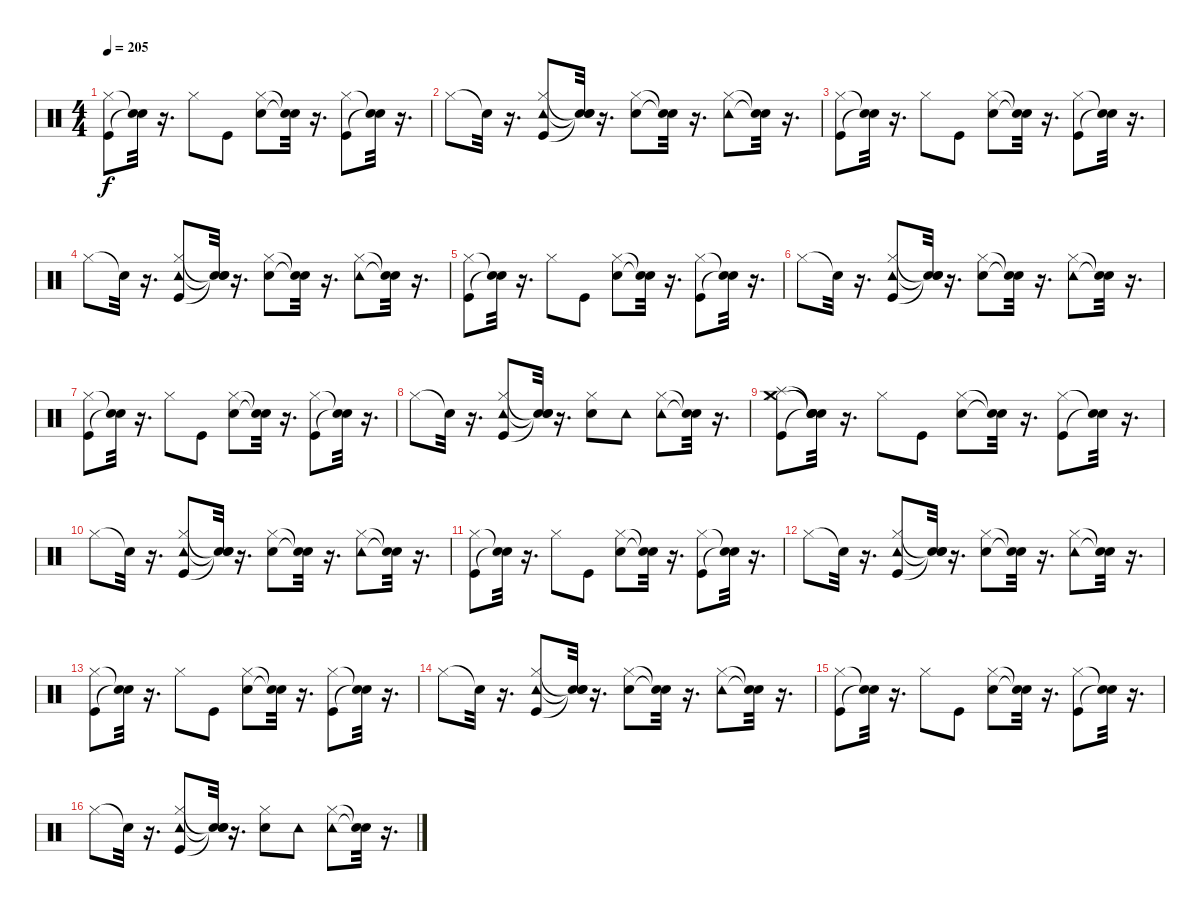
\track "" {instrument percussion}
\staff {score}
\articulation defaults
\ts (4 4)
\tempo 205
\clef neutral
\ks c
("Kick (hit)" "Hi-Hat (closed)").8{dy f} ("Snare (hit)"{t} "Snare (hit)"{t}).32 r.16{d} "Hi-Hat (closed)".8 "Kick (hit)".8 ("Hi-Hat (closed)" "Electric Snare (hit)").8 ("Snare (hit)"{t} "Snare (hit)"{t}).32 r.16{d} ("Hi-Hat (closed)" "Kick (hit)").8 ("Snare (hit)"{t} "Snare (hit)"{t}).32 r.16{d} |
"Hi-Hat (closed)".8 "Snare (hit)"{t}.32 r.16{d} ("Hi-Hat (closed)" "Kick (hit)" "Tambourine (hit)").8 ("Snare (hit)"{t} "Snare (hit)"{t} "Snare (hit)"{t}).32 r.16{d} ("Hi-Hat (closed)" "Electric Snare (hit)").8 ("Snare (hit)"{t} "Snare (hit)"{t}).32 r.16{d} ("Hi-Hat (closed)" "Tambourine (hit)").8 ("Snare (hit)"{t} "Snare (hit)"{t}).32 r.16{d} |
("Kick (hit)" "Hi-Hat (closed)").8 ("Snare (hit)"{t} "Snare (hit)"{t}).32 r.16{d} "Hi-Hat (closed)".8 "Kick (hit)".8 ("Hi-Hat (closed)" "Electric Snare (hit)").8 ("Snare (hit)"{t} "Snare (hit)"{t}).32 r.16{d} ("Hi-Hat (closed)" "Kick (hit)").8 ("Snare (hit)"{t} "Snare (hit)"{t}).32 r.16{d} |
"Hi-Hat (closed)".8 "Snare (hit)"{t}.32 r.16{d} ("Hi-Hat (closed)" "Kick (hit)" "Tambourine (hit)").8 ("Snare (hit)"{t} "Snare (hit)"{t} "Snare (hit)"{t}).32 r.16{d} ("Hi-Hat (closed)" "Electric Snare (hit)").8 ("Snare (hit)"{t} "Snare (hit)"{t}).32 r.16{d} ("Hi-Hat (closed)" "Tambourine (hit)").8 ("Snare (hit)"{t} "Snare (hit)"{t}).32 r.16{d} |
("Kick (hit)" "Hi-Hat (closed)").8 ("Snare (hit)"{t} "Snare (hit)"{t}).32 r.16{d} "Hi-Hat (closed)".8 "Kick (hit)".8 ("Hi-Hat (closed)" "Electric Snare (hit)").8 ("Snare (hit)"{t} "Snare (hit)"{t}).32 r.16{d} ("Hi-Hat (closed)" "Kick (hit)").8 ("Snare (hit)"{t} "Snare (hit)"{t}).32 r.16{d} |
"Hi-Hat (closed)".8 "Snare (hit)"{t}.32 r.16{d} ("Hi-Hat (closed)" "Kick (hit)" "Tambourine (hit)").8 ("Snare (hit)"{t} "Snare (hit)"{t} "Snare (hit)"{t}).32 r.16{d} ("Hi-Hat (closed)" "Electric Snare (hit)").8 ("Snare (hit)"{t} "Snare (hit)"{t}).32 r.16{d} ("Hi-Hat (closed)" "Tambourine (hit)").8 ("Snare (hit)"{t} "Snare (hit)"{t}).32 r.16{d} |
("Kick (hit)" "Hi-Hat (closed)").8 ("Snare (hit)"{t} "Snare (hit)"{t}).32 r.16{d} "Hi-Hat (closed)".8 "Kick (hit)".8 ("Hi-Hat (closed)" "Electric Snare (hit)").8 ("Snare (hit)"{t} "Snare (hit)"{t}).32 r.16{d} ("Hi-Hat (closed)" "Kick (hit)").8 ("Snare (hit)"{t} "Snare (hit)"{t}).32 r.16{d} |
"Hi-Hat (closed)".8 "Snare (hit)"{t}.32 r.16{d} ("Hi-Hat (closed)" "Kick (hit)" "Tambourine (hit)").8 ("Snare (hit)"{t} "Snare (hit)"{t} "Snare (hit)"{t}).32 r.16{d} ("Hi-Hat (closed)" "Electric Snare (hit)").8 "Tambourine (hit)".8 ("Hi-Hat (closed)" "Tambourine (hit)").8 ("Snare (hit)"{t} "Snare (hit)"{t}).32 r.16{d} |
("Kick (hit)" "Hi-Hat (closed)" "Splash (hit)" "Crash medium (hit)").8 ("Snare (hit)"{t} "Snare (hit)"{t} "Snare (hit)"{t} "Snare (hit)"{t}).32 r.16{d} "Hi-Hat (closed)".8 "Kick (hit)".8 ("Hi-Hat (closed)" "Electric Snare (hit)").8 ("Snare (hit)"{t} "Snare (hit)"{t}).32 r.16{d} ("Hi-Hat (closed)" "Kick (hit)").8 ("Snare (hit)"{t} "Snare (hit)"{t}).32 r.16{d} |
"Hi-Hat (closed)".8 "Snare (hit)"{t}.32 r.16{d} ("Hi-Hat (closed)" "Kick (hit)" "Tambourine (hit)").8 ("Snare (hit)"{t} "Snare (hit)"{t} "Snare (hit)"{t}).32 r.16{d} ("Hi-Hat (closed)" "Electric Snare (hit)").8 ("Snare (hit)"{t} "Snare (hit)"{t}).32 r.16{d} ("Hi-Hat (closed)" "Tambourine (hit)").8 ("Snare (hit)"{t} "Snare (hit)"{t}).32 r.16{d} |
("Kick (hit)" "Hi-Hat (closed)").8 ("Snare (hit)"{t} "Snare (hit)"{t}).32 r.16{d} "Hi-Hat (closed)".8 "Kick (hit)".8 ("Hi-Hat (closed)" "Electric Snare (hit)").8 ("Snare (hit)"{t} "Snare (hit)"{t}).32 r.16{d} ("Hi-Hat (closed)" "Kick (hit)").8 ("Snare (hit)"{t} "Snare (hit)"{t}).32 r.16{d} |
"Hi-Hat (closed)".8 "Snare (hit)"{t}.32 r.16{d} ("Hi-Hat (closed)" "Kick (hit)" "Tambourine (hit)").8 ("Snare (hit)"{t} "Snare (hit)"{t} "Snare (hit)"{t}).32 r.16{d} ("Hi-Hat (closed)" "Electric Snare (hit)").8 ("Snare (hit)"{t} "Snare (hit)"{t}).32 r.16{d} ("Hi-Hat (closed)" "Tambourine (hit)").8 ("Snare (hit)"{t} "Snare (hit)"{t}).32 r.16{d} |
("Kick (hit)" "Hi-Hat (closed)").8 ("Snare (hit)"{t} "Snare (hit)"{t}).32 r.16{d} "Hi-Hat (closed)".8 "Kick (hit)".8 ("Hi-Hat (closed)" "Electric Snare (hit)").8 ("Snare (hit)"{t} "Snare (hit)"{t}).32 r.16{d} ("Hi-Hat (closed)" "Kick (hit)").8 ("Snare (hit)"{t} "Snare (hit)"{t}).32 r.16{d} |
"Hi-Hat (closed)".8 "Snare (hit)"{t}.32 r.16{d} ("Hi-Hat (closed)" "Kick (hit)" "Tambourine (hit)").8 ("Snare (hit)"{t} "Snare (hit)"{t} "Snare (hit)"{t}).32 r.16{d} ("Hi-Hat (closed)" "Electric Snare (hit)").8 ("Snare (hit)"{t} "Snare (hit)"{t}).32 r.16{d} ("Hi-Hat (closed)" "Tambourine (hit)").8 ("Snare (hit)"{t} "Snare (hit)"{t}).32 r.16{d} |
("Kick (hit)" "Hi-Hat (closed)").8 ("Snare (hit)"{t} "Snare (hit)"{t}).32 r.16{d} "Hi-Hat (closed)".8 "Kick (hit)".8 ("Hi-Hat (closed)" "Electric Snare (hit)").8 ("Snare (hit)"{t} "Snare (hit)"{t}).32 r.16{d} ("Hi-Hat (closed)" "Kick (hit)").8 ("Snare (hit)"{t} "Snare (hit)"{t}).32 r.16{d} |
"Hi-Hat (closed)".8 "Snare (hit)"{t}.32 r.16{d} ("Hi-Hat (closed)" "Kick (hit)" "Tambourine (hit)").8 ("Snare (hit)"{t} "Snare (hit)"{t} "Snare (hit)"{t}).32 r.16{d} ("Hi-Hat (closed)" "Electric Snare (hit)").8 "Tambourine (hit)".8 ("Hi-Hat (closed)" "Tambourine (hit)").8 ("Snare (hit)"{t} "Snare (hit)"{t}).32 r.16{d}
